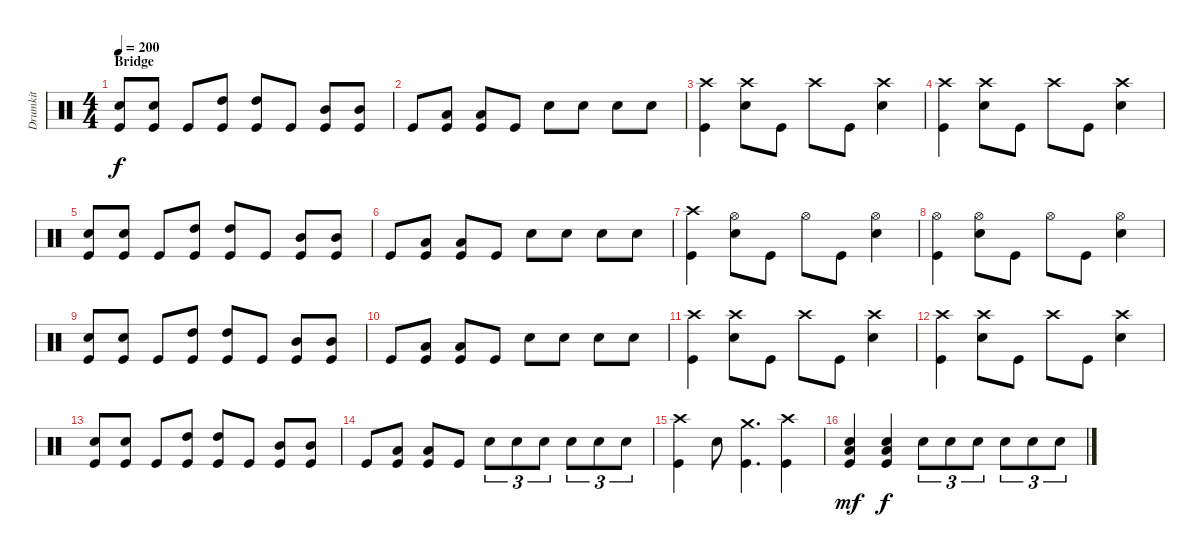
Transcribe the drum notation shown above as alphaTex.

\track ("Drumkit" "Drumkit") {instrument percussion}
\staff {score}
\articulation defaults
\ts (4 4)
\section ("" "Bridge")
\tempo 200
\clef neutral
\ks c
("Kick (hit)" "Snare (hit) 2").8{dy f} ("Kick (hit)" "Snare (hit) 2").8 "Kick (hit)".8 ("Kick (hit)" "High Tom (hit)").8 ("Kick (hit)" "High Tom (hit)").8 "Kick (hit)".8 ("Kick (hit)" "Mid Tom (hit)").8 ("Kick (hit)" "Mid Tom (hit)").8 |
"Kick (hit)".8 ("Kick (hit)" "Low Tom (hit)").8 ("Kick (hit)" "Low Tom (hit)").8 "Kick (hit)".8 "Snare (hit) 2".8 "Snare (hit) 2".8 "Snare (hit) 2".8 "Snare (hit) 2".8 |
("Kick (hit)" "Crash high (hit)").4 ("Snare (hit) 2" "Crash high (hit)").8 "Kick (hit)".8 "Crash high (hit)".8 "Kick (hit)".8 ("Snare (hit) 2" "Crash high (hit)").4 |
("Kick (hit)" "Crash high (hit)").4 ("Snare (hit) 2" "Crash high (hit)").8 "Kick (hit)".8 "Crash high (hit)".8 "Kick (hit)".8 ("Snare (hit) 2" "Crash high (hit)").4 |
("Kick (hit)" "Snare (hit) 2").8 ("Kick (hit)" "Snare (hit) 2").8 "Kick (hit)".8 ("Kick (hit)" "High Tom (hit)").8 ("Kick (hit)" "High Tom (hit)").8 "Kick (hit)".8 ("Kick (hit)" "Mid Tom (hit)").8 ("Kick (hit)" "Mid Tom (hit)").8 |
"Kick (hit)".8 ("Kick (hit)" "Low Tom (hit)").8 ("Kick (hit)" "Low Tom (hit)").8 "Kick (hit)".8 "Snare (hit) 2".8 "Snare (hit) 2".8 "Snare (hit) 2".8 "Snare (hit) 2".8 |
("Kick (hit)" "Crash high (hit)").4 ("Snare (hit) 2" "Hi-Hat (open)").8 "Kick (hit)".8 "Hi-Hat (open)".8 "Kick (hit)".8 ("Snare (hit) 2" "Hi-Hat (open)").4 |
("Kick (hit)" "Hi-Hat (open)").4 ("Snare (hit) 2" "Hi-Hat (open)").8 "Kick (hit)".8 "Hi-Hat (open)".8 "Kick (hit)".8 ("Snare (hit) 2" "Hi-Hat (open)").4 |
("Kick (hit)" "Snare (hit) 2").8 ("Kick (hit)" "Snare (hit) 2").8 "Kick (hit)".8 ("Kick (hit)" "High Tom (hit)").8 ("Kick (hit)" "High Tom (hit)").8 "Kick (hit)".8 ("Kick (hit)" "Mid Tom (hit)").8 ("Kick (hit)" "Mid Tom (hit)").8 |
"Kick (hit)".8 ("Kick (hit)" "Low Tom (hit)").8 ("Kick (hit)" "Low Tom (hit)").8 "Kick (hit)".8 "Snare (hit) 2".8 "Snare (hit) 2".8 "Snare (hit) 2".8 "Snare (hit) 2".8 |
("Kick (hit)" "Crash high (hit)").4 ("Snare (hit) 2" "Crash high (hit)").8 "Kick (hit)".8 "Crash high (hit)".8 "Kick (hit)".8 ("Snare (hit) 2" "Crash high (hit)").4 |
("Kick (hit)" "Crash high (hit)").4 ("Snare (hit) 2" "Crash high (hit)").8 "Kick (hit)".8 "Crash high (hit)".8 "Kick (hit)".8 ("Snare (hit) 2" "Crash high (hit)").4 |
("Kick (hit)" "Snare (hit) 2").8 ("Kick (hit)" "Snare (hit) 2").8 "Kick (hit)".8 ("Kick (hit)" "High Tom (hit)").8 ("Kick (hit)" "High Tom (hit)").8 "Kick (hit)".8 ("Kick (hit)" "Mid Tom (hit)").8 ("Kick (hit)" "Mid Tom (hit)").8 |
"Kick (hit)".8 ("Kick (hit)" "Low Tom (hit)").8 ("Kick (hit)" "Low Tom (hit)").8 "Kick (hit)".8 "Snare (hit) 2".8{tu (3 2)} "Snare (hit) 2".8{tu (3 2)} "Snare (hit) 2".8{tu (3 2)} "Snare (hit) 2".8{tu (3 2)} "Snare (hit) 2".8{tu (3 2)} "Snare (hit) 2".8{tu (3 2)} |
("Kick (hit)" "Crash high (hit)").4 "Snare (hit) 2".8 ("Kick (hit)" "Crash medium (hit)").4{d} ("Kick (hit)" "Crash high (hit)").4 |
("Kick (hit)" "Snare (hit) 2" "Low Floor Tom (hit)").4{dy mf} ("Kick (hit)" "Snare (hit) 2" "Low Floor Tom (hit)").4{dy f} "Snare (hit) 2".8{tu (3 2)} "Snare (hit) 2".8{tu (3 2)} "Snare (hit) 2".8{tu (3 2)} "Snare (hit) 2".8{tu (3 2)} "Snare (hit) 2".8{tu (3 2)} "Snare (hit) 2".8{tu (3 2)}
